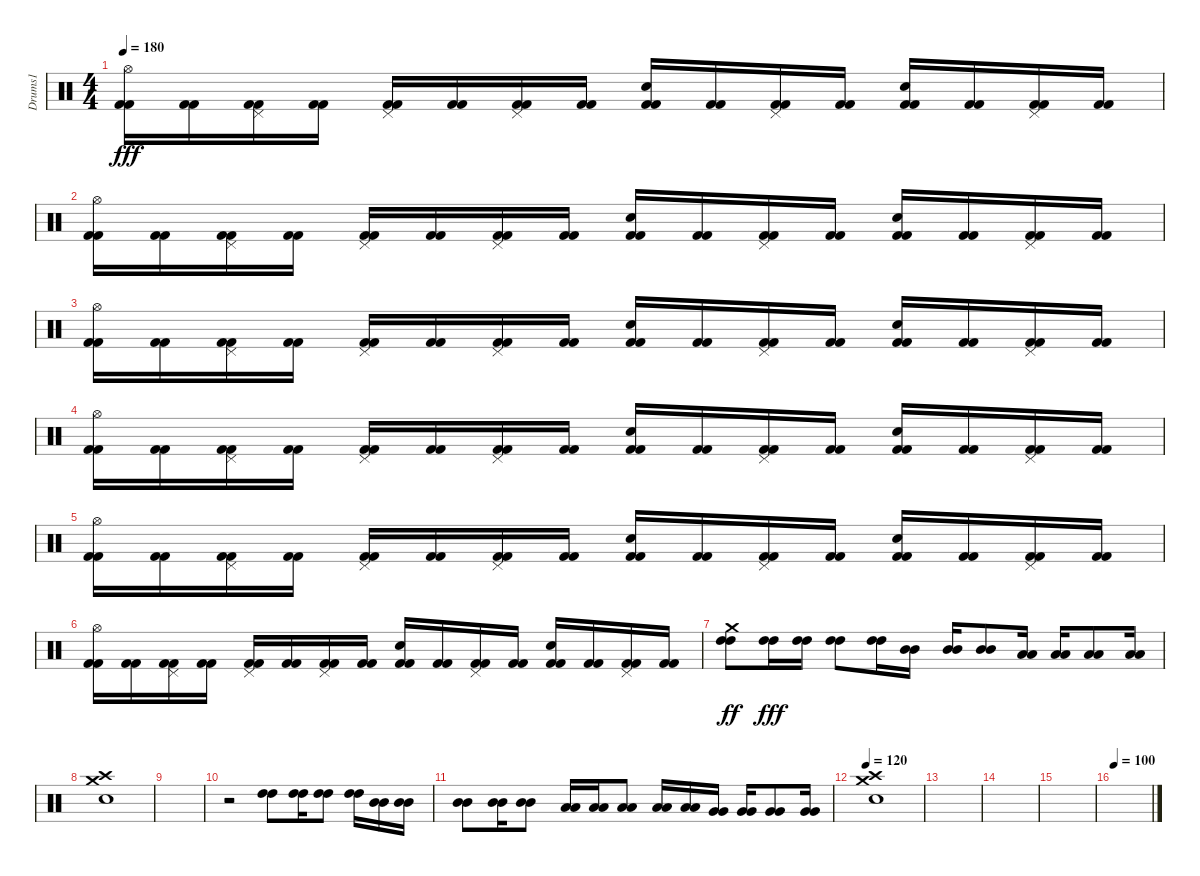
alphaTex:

\track ("Drums1" "Drums1") {instrument percussion}
\staff {score}
\articulation defaults
\ts (4 4)
\tempo 180
\clef neutral
\ks c
("Hi-Hat (open)" "Kick (hit) 2" "Kick (hit) 2").16{dy fff} ("Kick (hit) 2" "Kick (hit) 2").16 ("Pedal Hi-Hat (hit)" "Kick (hit) 2" "Kick (hit) 2").16 ("Kick (hit) 2" "Kick (hit) 2").16 ("Pedal Hi-Hat (hit)" "Kick (hit) 2" "Kick (hit) 2").16 ("Kick (hit) 2" "Kick (hit) 2").16 ("Pedal Hi-Hat (hit)" "Kick (hit) 2" "Kick (hit) 2").16 ("Kick (hit) 2" "Kick (hit) 2").16 ("Electric Snare (hit)" "Kick (hit) 2" "Kick (hit) 2").16 ("Kick (hit) 2" "Kick (hit) 2").16 ("Pedal Hi-Hat (hit)" "Kick (hit) 2" "Kick (hit) 2").16 ("Kick (hit) 2" "Kick (hit) 2").16 ("Electric Snare (hit)" "Kick (hit) 2" "Kick (hit) 2").16 ("Kick (hit) 2" "Kick (hit) 2").16 ("Pedal Hi-Hat (hit)" "Kick (hit) 2" "Kick (hit) 2").16 ("Kick (hit) 2" "Kick (hit) 2").16 |
("Hi-Hat (open)" "Kick (hit) 2" "Kick (hit) 2").16 ("Kick (hit) 2" "Kick (hit) 2").16 ("Pedal Hi-Hat (hit)" "Kick (hit) 2" "Kick (hit) 2").16 ("Kick (hit) 2" "Kick (hit) 2").16 ("Pedal Hi-Hat (hit)" "Kick (hit) 2" "Kick (hit) 2").16 ("Kick (hit) 2" "Kick (hit) 2").16 ("Pedal Hi-Hat (hit)" "Kick (hit) 2" "Kick (hit) 2").16 ("Kick (hit) 2" "Kick (hit) 2").16 ("Electric Snare (hit)" "Kick (hit) 2" "Kick (hit) 2").16 ("Kick (hit) 2" "Kick (hit) 2").16 ("Pedal Hi-Hat (hit)" "Kick (hit) 2" "Kick (hit) 2").16 ("Kick (hit) 2" "Kick (hit) 2").16 ("Electric Snare (hit)" "Kick (hit) 2" "Kick (hit) 2").16 ("Kick (hit) 2" "Kick (hit) 2").16 ("Pedal Hi-Hat (hit)" "Kick (hit) 2" "Kick (hit) 2").16 ("Kick (hit) 2" "Kick (hit) 2").16 |
("Hi-Hat (open)" "Kick (hit) 2" "Kick (hit) 2").16 ("Kick (hit) 2" "Kick (hit) 2").16 ("Pedal Hi-Hat (hit)" "Kick (hit) 2" "Kick (hit) 2").16 ("Kick (hit) 2" "Kick (hit) 2").16 ("Pedal Hi-Hat (hit)" "Kick (hit) 2" "Kick (hit) 2").16 ("Kick (hit) 2" "Kick (hit) 2").16 ("Pedal Hi-Hat (hit)" "Kick (hit) 2" "Kick (hit) 2").16 ("Kick (hit) 2" "Kick (hit) 2").16 ("Electric Snare (hit)" "Kick (hit) 2" "Kick (hit) 2").16 ("Kick (hit) 2" "Kick (hit) 2").16 ("Pedal Hi-Hat (hit)" "Kick (hit) 2" "Kick (hit) 2").16 ("Kick (hit) 2" "Kick (hit) 2").16 ("Electric Snare (hit)" "Kick (hit) 2" "Kick (hit) 2").16 ("Kick (hit) 2" "Kick (hit) 2").16 ("Pedal Hi-Hat (hit)" "Kick (hit) 2" "Kick (hit) 2").16 ("Kick (hit) 2" "Kick (hit) 2").16 |
("Hi-Hat (open)" "Kick (hit) 2" "Kick (hit) 2").16 ("Kick (hit) 2" "Kick (hit) 2").16 ("Pedal Hi-Hat (hit)" "Kick (hit) 2" "Kick (hit) 2").16 ("Kick (hit) 2" "Kick (hit) 2").16 ("Pedal Hi-Hat (hit)" "Kick (hit) 2" "Kick (hit) 2").16 ("Kick (hit) 2" "Kick (hit) 2").16 ("Pedal Hi-Hat (hit)" "Kick (hit) 2" "Kick (hit) 2").16 ("Kick (hit) 2" "Kick (hit) 2").16 ("Electric Snare (hit)" "Kick (hit) 2" "Kick (hit) 2").16 ("Kick (hit) 2" "Kick (hit) 2").16 ("Pedal Hi-Hat (hit)" "Kick (hit) 2" "Kick (hit) 2").16 ("Kick (hit) 2" "Kick (hit) 2").16 ("Electric Snare (hit)" "Kick (hit) 2" "Kick (hit) 2").16 ("Kick (hit) 2" "Kick (hit) 2").16 ("Pedal Hi-Hat (hit)" "Kick (hit) 2" "Kick (hit) 2").16 ("Kick (hit) 2" "Kick (hit) 2").16 |
("Hi-Hat (open)" "Kick (hit) 2" "Kick (hit) 2").16 ("Kick (hit) 2" "Kick (hit) 2").16 ("Pedal Hi-Hat (hit)" "Kick (hit) 2" "Kick (hit) 2").16 ("Kick (hit) 2" "Kick (hit) 2").16 ("Pedal Hi-Hat (hit)" "Kick (hit) 2" "Kick (hit) 2").16 ("Kick (hit) 2" "Kick (hit) 2").16 ("Pedal Hi-Hat (hit)" "Kick (hit) 2" "Kick (hit) 2").16 ("Kick (hit) 2" "Kick (hit) 2").16 ("Electric Snare (hit)" "Kick (hit) 2" "Kick (hit) 2").16 ("Kick (hit) 2" "Kick (hit) 2").16 ("Pedal Hi-Hat (hit)" "Kick (hit) 2" "Kick (hit) 2").16 ("Kick (hit) 2" "Kick (hit) 2").16 ("Electric Snare (hit)" "Kick (hit) 2" "Kick (hit) 2").16 ("Kick (hit) 2" "Kick (hit) 2").16 ("Pedal Hi-Hat (hit)" "Kick (hit) 2" "Kick (hit) 2").16 ("Kick (hit) 2" "Kick (hit) 2").16 |
("Hi-Hat (open)" "Kick (hit) 2" "Kick (hit) 2").16 ("Kick (hit) 2" "Kick (hit) 2").16 ("Pedal Hi-Hat (hit)" "Kick (hit) 2" "Kick (hit) 2").16 ("Kick (hit) 2" "Kick (hit) 2").16 ("Pedal Hi-Hat (hit)" "Kick (hit) 2" "Kick (hit) 2").16 ("Kick (hit) 2" "Kick (hit) 2").16 ("Pedal Hi-Hat (hit)" "Kick (hit) 2" "Kick (hit) 2").16 ("Kick (hit) 2" "Kick (hit) 2").16 ("Electric Snare (hit)" "Kick (hit) 2" "Kick (hit) 2").16 ("Kick (hit) 2" "Kick (hit) 2").16 ("Pedal Hi-Hat (hit)" "Kick (hit) 2" "Kick (hit) 2").16 ("Kick (hit) 2" "Kick (hit) 2").16 ("Electric Snare (hit)" "Kick (hit) 2" "Kick (hit) 2").16 ("Kick (hit) 2" "Kick (hit) 2").16 ("Pedal Hi-Hat (hit)" "Kick (hit) 2" "Kick (hit) 2").16 ("Kick (hit) 2" "Kick (hit) 2").16 |
("High Tom (hit)" "High Tom (hit)" "Crash medium (hit)").8{dy ff} ("High Tom (hit)" "High Tom (hit)").16{dy fff} ("High Tom (hit)" "High Tom (hit)").16 ("High Tom (hit)" "High Tom (hit)").8 ("High Tom (hit)" "High Tom (hit)").16 ("Mid Tom (hit)" "Mid Tom (hit)").16 ("Mid Tom (hit)" "Mid Tom (hit)").16 ("Mid Tom (hit)" "Mid Tom (hit)").8 ("Low Tom (hit)" "Low Tom (hit)").16 ("Low Tom (hit)" "Low Tom (hit)").16 ("Low Tom (hit)" "Low Tom (hit)").8 ("Low Tom (hit)" "Low Tom (hit)").16 |
("Electric Snare (hit)" "Crash medium (hit)" "Crash high (hit)").1 |
|
r.2 ("High Tom (hit)" "High Tom (hit)").8 ("High Tom (hit)" "High Tom (hit)").16 ("High Tom (hit)" "High Tom (hit)").8 ("High Tom (hit)" "High Tom (hit)").16 ("Mid Tom (hit)" "Mid Tom (hit)").16 ("Mid Tom (hit)" "Mid Tom (hit)").16 |
("Mid Tom (hit)" "Mid Tom (hit)").8 ("Mid Tom (hit)" "Mid Tom (hit)").16 ("Mid Tom (hit)" "Mid Tom (hit)").8 ("Low Tom (hit)" "Low Tom (hit)").16 ("Low Tom (hit)" "Low Tom (hit)").16 ("Low Tom (hit)" "Low Tom (hit)").8 ("Low Tom (hit)" "Low Tom (hit)").16 ("Low Tom (hit)" "Low Tom (hit)").16 ("Very Low Tom (hit)" "Very Low Tom (hit)").16 ("Very Low Tom (hit)" "Very Low Tom (hit)").16 ("Very Low Tom (hit)" "Very Low Tom (hit)").8 ("Very Low Tom (hit)" "Very Low Tom (hit)").16 |
\tempo 120
("Crash high (hit)" "Crash medium (hit)" "Electric Snare (hit)").1 |
|
|
|
\tempo 100
